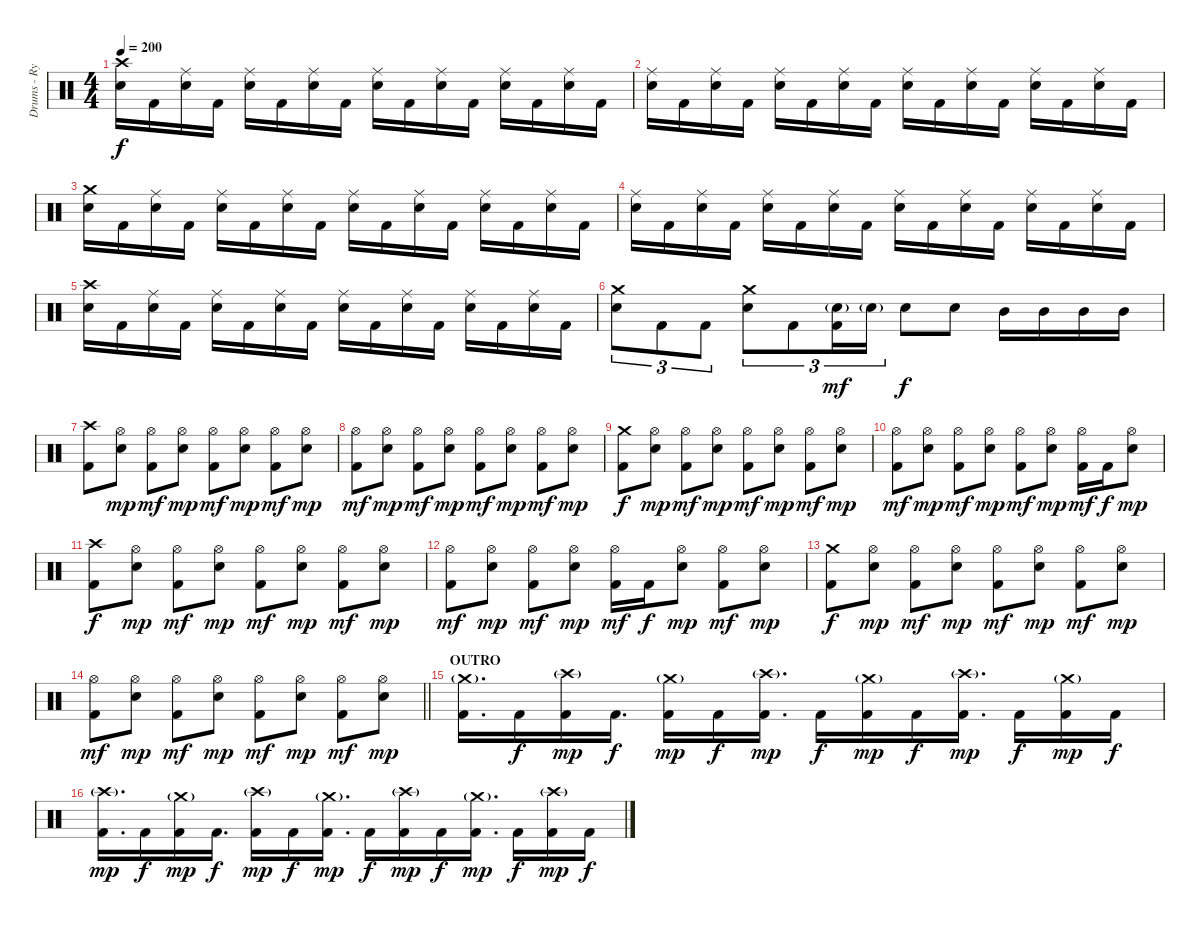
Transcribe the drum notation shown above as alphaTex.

\track ("Drums - Ryan Bates" "Drums - Ry") {instrument percussion}
\staff {score}
\articulation defaults
\ts (4 4)
\tempo 200
\clef neutral
\ks c
("Crash high (hit)" "Snare (hit) 2").16{dy f} "Kick (hit) 2".16 ("Ride (middle)" "Snare (hit) 2").16 "Kick (hit) 2".16 ("Ride (middle)" "Snare (hit) 2").16 "Kick (hit) 2".16 ("Ride (middle)" "Snare (hit) 2").16 "Kick (hit) 2".16 ("Ride (middle)" "Snare (hit) 2").16 "Kick (hit) 2".16 ("Ride (middle)" "Snare (hit) 2").16 "Kick (hit) 2".16 ("Ride (middle)" "Snare (hit) 2").16 "Kick (hit) 2".16 ("Ride (middle)" "Snare (hit) 2").16 "Kick (hit) 2".16 |
("Ride (middle)" "Snare (hit) 2").16 "Kick (hit) 2".16 ("Ride (middle)" "Snare (hit) 2").16 "Kick (hit) 2".16 ("Ride (middle)" "Snare (hit) 2").16 "Kick (hit) 2".16 ("Ride (middle)" "Snare (hit) 2").16 "Kick (hit) 2".16 ("Ride (middle)" "Snare (hit) 2").16 "Kick (hit) 2".16 ("Ride (middle)" "Snare (hit) 2").16 "Kick (hit) 2".16 ("Ride (middle)" "Snare (hit) 2").16 "Kick (hit) 2".16 ("Ride (middle)" "Snare (hit) 2").16 "Kick (hit) 2".16 |
("Crash medium (hit)" "Snare (hit) 2").16 "Kick (hit) 2".16 ("Ride (middle)" "Snare (hit) 2").16 "Kick (hit) 2".16 ("Ride (middle)" "Snare (hit) 2").16 "Kick (hit) 2".16 ("Ride (middle)" "Snare (hit) 2").16 "Kick (hit) 2".16 ("Ride (middle)" "Snare (hit) 2").16 "Kick (hit) 2".16 ("Ride (middle)" "Snare (hit) 2").16 "Kick (hit) 2".16 ("Ride (middle)" "Snare (hit) 2").16 "Kick (hit) 2".16 ("Ride (middle)" "Snare (hit) 2").16 "Kick (hit) 2".16 |
("Ride (middle)" "Snare (hit) 2").16 "Kick (hit) 2".16 ("Ride (middle)" "Snare (hit) 2").16 "Kick (hit) 2".16 ("Ride (middle)" "Snare (hit) 2").16 "Kick (hit) 2".16 ("Ride (middle)" "Snare (hit) 2").16 "Kick (hit) 2".16 ("Ride (middle)" "Snare (hit) 2").16 "Kick (hit) 2".16 ("Ride (middle)" "Snare (hit) 2").16 "Kick (hit) 2".16 ("Ride (middle)" "Snare (hit) 2").16 "Kick (hit) 2".16 ("Ride (middle)" "Snare (hit) 2").16 "Kick (hit) 2".16 |
("Crash high (hit)" "Snare (hit) 2").16 "Kick (hit) 2".16 ("Ride (middle)" "Snare (hit) 2").16 "Kick (hit) 2".16 ("Ride (middle)" "Snare (hit) 2").16 "Kick (hit) 2".16 ("Ride (middle)" "Snare (hit) 2").16 "Kick (hit) 2".16 ("Ride (middle)" "Snare (hit) 2").16 "Kick (hit) 2".16 ("Ride (middle)" "Snare (hit) 2").16 "Kick (hit) 2".16 ("Ride (middle)" "Snare (hit) 2").16 "Kick (hit) 2".16 ("Ride (middle)" "Snare (hit) 2").16 "Kick (hit) 2".16 |
("Crash medium (hit)" "Snare (hit) 2").8{tu (3 2)} "Kick (hit) 2".8{tu (3 2)} "Kick (hit) 2".8{tu (3 2)} ("Crash medium (hit)" "Snare (hit) 2").8{tu (3 2)} "Kick (hit) 2".8{tu (3 2)} ("Snare (hit) 2"{g} "Kick (hit) 2").16{tu (3 2) dy mf} "Snare (hit) 2"{g}.16{tu (3 2)} "Snare (hit) 2".8{dy f} "Snare (hit) 2".8 "Mid Tom (hit)".16 "Mid Tom (hit)".16 "Mid Tom (hit)".16 "Mid Tom (hit)".16 |
("Crash high (hit)" "Kick (hit) 2").8 ("Hi-Hat (open)" "Snare (hit) 2").8{dy mp} ("Hi-Hat (open)" "Kick (hit) 2").8{dy mf} ("Hi-Hat (open)" "Snare (hit) 2").8{dy mp} ("Hi-Hat (open)" "Kick (hit) 2").8{dy mf} ("Hi-Hat (open)" "Snare (hit) 2").8{dy mp} ("Hi-Hat (open)" "Kick (hit) 2").8{dy mf} ("Hi-Hat (open)" "Snare (hit) 2").8{dy mp} |
("Hi-Hat (open)" "Kick (hit) 2").8{dy mf} ("Hi-Hat (open)" "Snare (hit) 2").8{dy mp} ("Hi-Hat (open)" "Kick (hit) 2").8{dy mf} ("Hi-Hat (open)" "Snare (hit) 2").8{dy mp} ("Hi-Hat (open)" "Kick (hit) 2").8{dy mf} ("Hi-Hat (open)" "Snare (hit) 2").8{dy mp} ("Hi-Hat (open)" "Kick (hit) 2").8{dy mf} ("Hi-Hat (open)" "Snare (hit) 2").8{dy mp} |
("Crash medium (hit)" "Kick (hit) 2").8{dy f} ("Hi-Hat (open)" "Snare (hit) 2").8{dy mp} ("Hi-Hat (open)" "Kick (hit) 2").8{dy mf} ("Hi-Hat (open)" "Snare (hit) 2").8{dy mp} ("Hi-Hat (open)" "Kick (hit) 2").8{dy mf} ("Hi-Hat (open)" "Snare (hit) 2").8{dy mp} ("Hi-Hat (open)" "Kick (hit) 2").8{dy mf} ("Hi-Hat (open)" "Snare (hit) 2").8{dy mp} |
("Hi-Hat (open)" "Kick (hit) 2").8{dy mf} ("Hi-Hat (open)" "Snare (hit) 2").8{dy mp} ("Hi-Hat (open)" "Kick (hit) 2").8{dy mf} ("Hi-Hat (open)" "Snare (hit) 2").8{dy mp} ("Hi-Hat (open)" "Kick (hit) 2").8{dy mf} ("Hi-Hat (open)" "Snare (hit) 2").8{dy mp} ("Hi-Hat (open)" "Kick (hit) 2").16{dy mf} "Kick (hit) 2".16{dy f} ("Hi-Hat (open)" "Snare (hit) 2").8{dy mp} |
("Crash high (hit)" "Kick (hit) 2").8{dy f} ("Hi-Hat (open)" "Snare (hit) 2").8{dy mp} ("Hi-Hat (open)" "Kick (hit) 2").8{dy mf} ("Hi-Hat (open)" "Snare (hit) 2").8{dy mp} ("Hi-Hat (open)" "Kick (hit) 2").8{dy mf} ("Hi-Hat (open)" "Snare (hit) 2").8{dy mp} ("Hi-Hat (open)" "Kick (hit) 2").8{dy mf} ("Hi-Hat (open)" "Snare (hit) 2").8{dy mp} |
("Hi-Hat (open)" "Kick (hit) 2").8{dy mf} ("Hi-Hat (open)" "Snare (hit) 2").8{dy mp} ("Hi-Hat (open)" "Kick (hit) 2").8{dy mf} ("Hi-Hat (open)" "Snare (hit) 2").8{dy mp} ("Hi-Hat (open)" "Kick (hit) 2").16{dy mf} "Kick (hit) 2".16{dy f} ("Hi-Hat (open)" "Snare (hit) 2").8{dy mp} ("Hi-Hat (open)" "Kick (hit) 2").8{dy mf} ("Hi-Hat (open)" "Snare (hit) 2").8{dy mp} |
("Crash medium (hit)" "Kick (hit) 2").8{dy f} ("Hi-Hat (open)" "Snare (hit) 2").8{dy mp} ("Hi-Hat (open)" "Kick (hit) 2").8{dy mf} ("Hi-Hat (open)" "Snare (hit) 2").8{dy mp} ("Hi-Hat (open)" "Kick (hit) 2").8{dy mf} ("Hi-Hat (open)" "Snare (hit) 2").8{dy mp} ("Hi-Hat (open)" "Kick (hit) 2").8{dy mf} ("Hi-Hat (open)" "Snare (hit) 2").8{dy mp} |
\barLineRight lightlight
("Hi-Hat (open)" "Kick (hit) 2").8{dy mf} ("Hi-Hat (open)" "Snare (hit) 2").8{dy mp} ("Hi-Hat (open)" "Kick (hit) 2").8{dy mf} ("Hi-Hat (open)" "Snare (hit) 2").8{dy mp} ("Hi-Hat (open)" "Kick (hit) 2").8{dy mf} ("Hi-Hat (open)" "Snare (hit) 2").8{dy mp} ("Hi-Hat (open)" "Kick (hit) 2").8{dy mf} ("Hi-Hat (open)" "Snare (hit) 2").8{dy mp} |
\section ("" "OUTRO")
("Crash medium (hit)"{g} "Kick (hit) 2").16{d} "Kick (hit) 2".16{dy f} ("Crash high (hit)"{g} "Kick (hit) 2").16{dy mp} "Kick (hit) 2".16{d dy f} ("Crash medium (hit)"{g} "Kick (hit) 2").16{dy mp} "Kick (hit) 2".16{dy f} ("Crash high (hit)"{g} "Kick (hit) 2").16{d dy mp} "Kick (hit) 2".16{dy f} ("Crash medium (hit)"{g} "Kick (hit) 2").16{dy mp} "Kick (hit) 2".16{dy f} ("Crash high (hit)"{g} "Kick (hit) 2").16{d dy mp} "Kick (hit) 2".16{dy f} ("Crash medium (hit)"{g} "Kick (hit) 2").16{dy mp} "Kick (hit) 2".16{dy f} |
("Crash high (hit)"{g} "Kick (hit) 2").16{d dy mp} "Kick (hit) 2".16{dy f} ("Crash medium (hit)"{g} "Kick (hit) 2").16{dy mp} "Kick (hit) 2".16{d dy f} ("Crash high (hit)"{g} "Kick (hit) 2").16{dy mp} "Kick (hit) 2".16{dy f} ("Crash medium (hit)"{g} "Kick (hit) 2").16{d dy mp} "Kick (hit) 2".16{dy f} ("Crash high (hit)"{g} "Kick (hit) 2").16{dy mp} "Kick (hit) 2".16{dy f} ("Crash medium (hit)"{g} "Kick (hit) 2").16{d dy mp} "Kick (hit) 2".16{dy f} ("Crash high (hit)"{g} "Kick (hit) 2").16{dy mp} "Kick (hit) 2".16{dy f}
